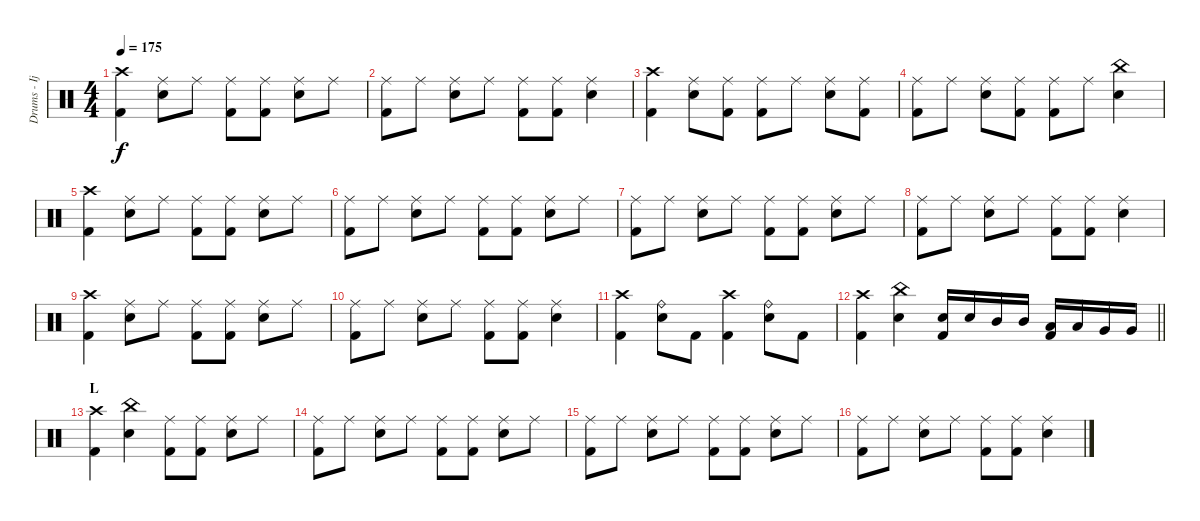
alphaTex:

\track ("Drums - Ijichi" "Drums - Ij") {instrument percussion}
\staff {score}
\articulation defaults
\ts (4 4)
\tempo 175
\clef neutral
\ks c
("Crash high (hit)" "Kick (hit) 2").4{dy f} ("Ride (middle)" "Snare (hit) 2").8 "Ride (middle)".8 ("Ride (middle)" "Kick (hit) 2").8 ("Ride (middle)" "Kick (hit) 2").8 ("Ride (middle)" "Snare (hit) 2").8 "Ride (middle)".8 |
("Ride (middle)" "Kick (hit) 2").8 "Ride (middle)".8 ("Ride (middle)" "Snare (hit) 2").8 "Ride (middle)".8 ("Ride (middle)" "Kick (hit) 2").8 ("Ride (middle)" "Kick (hit) 2").8 ("Ride (middle)" "Snare (hit) 2").4 |
("Crash high (hit)" "Kick (hit) 2").4 ("Ride (middle)" "Snare (hit) 2").8 ("Ride (middle)" "Kick (hit) 2").8 ("Ride (middle)" "Kick (hit) 2").8 "Ride (middle)".8 ("Ride (middle)" "Snare (hit) 2").8 ("Ride (middle)" "Kick (hit) 2").8 |
("Ride (middle)" "Kick (hit) 2").8 "Ride (middle)".8 ("Ride (middle)" "Snare (hit) 2").8 ("Ride (middle)" "Kick (hit) 2").8 ("Ride (middle)" "Kick (hit) 2").8 "Ride (middle)".8 ("China (hit)" "Snare (hit) 2").4 |
("Crash high (hit)" "Kick (hit) 2").4 ("Ride (middle)" "Snare (hit) 2").8 "Ride (middle)".8 ("Ride (middle)" "Kick (hit) 2").8 ("Ride (middle)" "Kick (hit) 2").8 ("Ride (middle)" "Snare (hit) 2").8 "Ride (middle)".8 |
("Ride (middle)" "Kick (hit) 2").8 "Ride (middle)".8 ("Ride (middle)" "Snare (hit) 2").8 "Ride (middle)".8 ("Ride (middle)" "Kick (hit) 2").8 ("Ride (middle)" "Kick (hit) 2").8 ("Ride (middle)" "Snare (hit) 2").8 "Ride (middle)".8 |
("Ride (middle)" "Kick (hit) 2").8 "Ride (middle)".8 ("Ride (middle)" "Snare (hit) 2").8 "Ride (middle)".8 ("Ride (middle)" "Kick (hit) 2").8 ("Ride (middle)" "Kick (hit) 2").8 ("Ride (middle)" "Snare (hit) 2").8 "Ride (middle)".8 |
("Ride (middle)" "Kick (hit) 2").8 "Ride (middle)".8 ("Ride (middle)" "Snare (hit) 2").8 "Ride (middle)".8 ("Ride (middle)" "Kick (hit) 2").8 ("Ride (middle)" "Kick (hit) 2").8 ("Ride (middle)" "Snare (hit) 2").4 |
("Crash high (hit)" "Kick (hit) 2").4 ("Ride (middle)" "Snare (hit) 2").8 "Ride (middle)".8 ("Ride (middle)" "Kick (hit) 2").8 ("Ride (middle)" "Kick (hit) 2").8 ("Ride (middle)" "Snare (hit) 2").8 "Ride (middle)".8 |
("Ride (middle)" "Kick (hit) 2").8 "Ride (middle)".8 ("Ride (middle)" "Snare (hit) 2").8 "Ride (middle)".8 ("Ride (middle)" "Kick (hit) 2").8 ("Ride (middle)" "Kick (hit) 2").8 ("Ride (middle)" "Snare (hit) 2").4 |
("Crash high (hit)" "Kick (hit) 2").4 ("Ride (bell)" "Snare (hit) 2").8 "Kick (hit) 2".8 ("Crash high (hit)" "Kick (hit) 2").4 ("Ride (bell)" "Snare (hit) 2").8 "Kick (hit) 2".8 |
\barLineRight lightlight
("Crash high (hit)" "Kick (hit) 2").4 ("China (hit)" "Snare (hit) 2").4 ("Snare (hit) 2" "Kick (hit) 2").16 "Snare (hit) 2".16 "Mid Tom (hit)".16 "Mid Tom (hit)".16 ("Low Tom (hit)" "Kick (hit) 2").16 "Low Tom (hit)".16 "Very Low Tom (hit)".16 "Very Low Tom (hit)".16 |
\section ("" "L")
("Crash high (hit)" "Kick (hit) 2").4 ("China (hit)" "Snare (hit) 2").4 ("Ride (middle)" "Kick (hit) 2").8 ("Ride (middle)" "Kick (hit) 2").8 ("Ride (middle)" "Snare (hit) 2").8 "Ride (middle)".8 |
("Ride (middle)" "Kick (hit) 2").8 "Ride (middle)".8 ("Ride (middle)" "Snare (hit) 2").8 "Ride (middle)".8 ("Ride (middle)" "Kick (hit) 2").8 ("Ride (middle)" "Kick (hit) 2").8 ("Ride (middle)" "Snare (hit) 2").8 "Ride (middle)".8 |
("Ride (middle)" "Kick (hit) 2").8 "Ride (middle)".8 ("Ride (middle)" "Snare (hit) 2").8 "Ride (middle)".8 ("Ride (middle)" "Kick (hit) 2").8 ("Ride (middle)" "Kick (hit) 2").8 ("Ride (middle)" "Snare (hit) 2").8 "Ride (middle)".8 |
("Ride (middle)" "Kick (hit) 2").8 "Ride (middle)".8 ("Ride (middle)" "Snare (hit) 2").8 "Ride (middle)".8 ("Ride (middle)" "Kick (hit) 2").8 ("Ride (middle)" "Kick (hit) 2").8 ("Ride (middle)" "Snare (hit) 2").4
